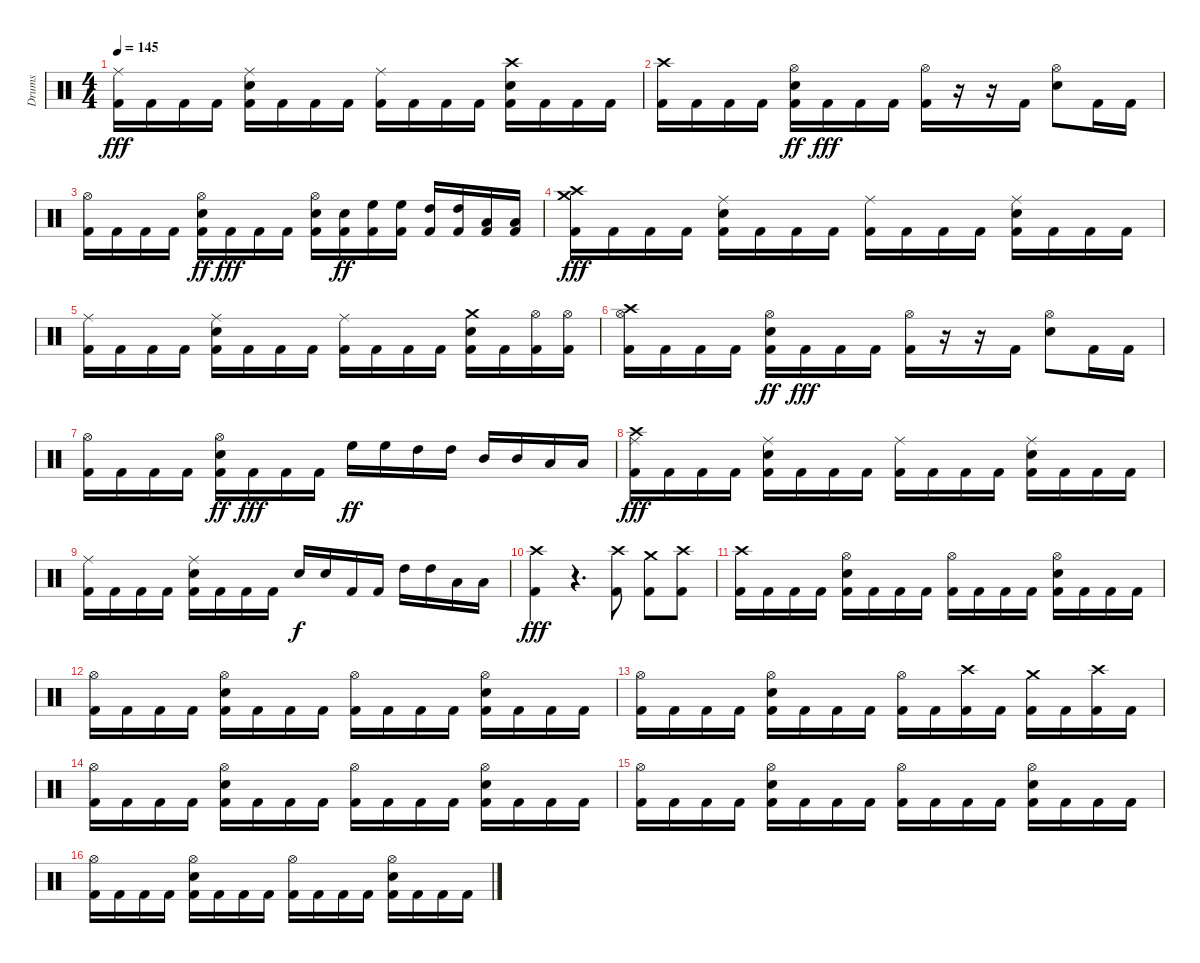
\track ("Drums" "Drums") {instrument percussion}
\staff {score}
\articulation defaults
\ts (4 4)
\tempo 145
\clef neutral
\ks c
("Ride (middle)" "Kick (hit) 2").16{dy fff} "Kick (hit) 2".16 "Kick (hit) 2".16 "Kick (hit) 2".16 ("Ride (middle)" "Snare (hit) 2" "Kick (hit) 2").16 "Kick (hit) 2".16 "Kick (hit) 2".16 "Kick (hit) 2".16 ("Ride (middle)" "Kick (hit) 2").16 "Kick (hit) 2".16 "Kick (hit) 2".16 "Kick (hit) 2".16 ("Crash high (hit)" "Snare (hit) 2" "Kick (hit) 2").16 "Kick (hit) 2".16 "Kick (hit) 2".16 "Kick (hit) 2".16 |
("Crash high (hit)" "Kick (hit) 2").16 "Kick (hit) 2".16 "Kick (hit) 2".16 "Kick (hit) 2".16 ("Hi-Hat (open)" "Snare (hit) 2" "Kick (hit) 2").16{dy ff} "Kick (hit) 2".16{dy fff} "Kick (hit) 2".16 "Kick (hit) 2".16 ("Hi-Hat (open)" "Kick (hit) 2").16 r.16 r.16 "Kick (hit) 2".16 ("Hi-Hat (open)" "Snare (hit) 2").8 "Kick (hit) 2".16 "Kick (hit) 2".16 |
("Hi-Hat (open)" "Kick (hit) 2").16 "Kick (hit) 2".16 "Kick (hit) 2".16 "Kick (hit) 2".16 ("Hi-Hat (open)" "Snare (hit) 2" "Kick (hit) 2").16{dy ff} "Kick (hit) 2".16{dy fff} "Kick (hit) 2".16 "Kick (hit) 2".16 ("Hi-Hat (open)" "Snare (hit) 2" "Kick (hit) 2").16 ("Snare (hit) 2" "Kick (hit) 2").16{dy ff} ("High Floor Tom (hit)" "Kick (hit) 2").16 ("High Floor Tom (hit)" "Kick (hit) 2").16 ("High Tom (hit)" "Kick (hit) 2").16 ("High Tom (hit)" "Kick (hit) 2").16 ("Low Tom (hit)" "Kick (hit) 2").16 ("Low Tom (hit)" "Kick (hit) 2").16 |
("Crash high (hit)" "Crash medium (hit)" "Kick (hit) 2").16{dy fff} "Kick (hit) 2".16 "Kick (hit) 2".16 "Kick (hit) 2".16 ("Ride (middle)" "Snare (hit) 2" "Kick (hit) 2").16 "Kick (hit) 2".16 "Kick (hit) 2".16 "Kick (hit) 2".16 ("Ride (middle)" "Kick (hit) 2").16 "Kick (hit) 2".16 "Kick (hit) 2".16 "Kick (hit) 2".16 ("Ride (middle)" "Snare (hit) 2" "Kick (hit) 2").16 "Kick (hit) 2".16 "Kick (hit) 2".16 "Kick (hit) 2".16 |
("Ride (middle)" "Kick (hit) 2").16 "Kick (hit) 2".16 "Kick (hit) 2".16 "Kick (hit) 2".16 ("Ride (middle)" "Snare (hit) 2" "Kick (hit) 2").16 "Kick (hit) 2".16 "Kick (hit) 2".16 "Kick (hit) 2".16 ("Ride (middle)" "Kick (hit) 2").16 "Kick (hit) 2".16 "Kick (hit) 2".16 "Kick (hit) 2".16 ("Crash medium (hit)" "Snare (hit) 2" "Kick (hit) 2").16 "Kick (hit) 2".16 ("Hi-Hat (open)" "Kick (hit) 2").16 ("Hi-Hat (open)" "Kick (hit) 2").16 |
("Crash high (hit)" "Hi-Hat (open)" "Kick (hit) 2").16 "Kick (hit) 2".16 "Kick (hit) 2".16 "Kick (hit) 2".16 ("Hi-Hat (open)" "Snare (hit) 2" "Kick (hit) 2").16{dy ff} "Kick (hit) 2".16{dy fff} "Kick (hit) 2".16 "Kick (hit) 2".16 ("Hi-Hat (open)" "Kick (hit) 2").16 r.16 r.16 "Kick (hit) 2".16 ("Hi-Hat (open)" "Snare (hit) 2").8 "Kick (hit) 2".16 "Kick (hit) 2".16 |
("Hi-Hat (open)" "Kick (hit) 2").16 "Kick (hit) 2".16 "Kick (hit) 2".16 "Kick (hit) 2".16 ("Hi-Hat (open)" "Snare (hit) 2" "Kick (hit) 2").16{dy ff} "Kick (hit) 2".16{dy fff} "Kick (hit) 2".16 "Kick (hit) 2".16 "High Floor Tom (hit)".16{dy ff} "High Floor Tom (hit)".16 "High Tom (hit)".16 "High Tom (hit)".16 "Mid Tom (hit)".16 "Mid Tom (hit)".16 "Low Tom (hit)".16 "Low Tom (hit)".16 |
("Crash high (hit)" "Ride (middle)" "Kick (hit) 2").16{dy fff} "Kick (hit) 2".16 "Kick (hit) 2".16 "Kick (hit) 2".16 ("Ride (middle)" "Snare (hit) 2" "Kick (hit) 2").16 "Kick (hit) 2".16 "Kick (hit) 2".16 "Kick (hit) 2".16 ("Ride (middle)" "Kick (hit) 2").16 "Kick (hit) 2".16 "Kick (hit) 2".16 "Kick (hit) 2".16 ("Ride (middle)" "Snare (hit) 2" "Kick (hit) 2").16 "Kick (hit) 2".16 "Kick (hit) 2".16 "Kick (hit) 2".16 |
("Ride (middle)" "Kick (hit) 2").16 "Kick (hit) 2".16 "Kick (hit) 2".16 "Kick (hit) 2".16 ("Ride (middle)" "Snare (hit) 2" "Kick (hit) 2").16 "Kick (hit) 2".16 "Kick (hit) 2".16 "Kick (hit) 2".16 "Snare (hit) 2".16{dy f} "Snare (hit) 2".16 "Kick (hit) 2".16 "Kick (hit) 2".16 "High Tom (hit)".16 "High Tom (hit)".16 "Low Tom (hit)".16 "Low Tom (hit)".16 |
("Crash high (hit)" "Kick (hit) 2").4{dy fff} r.4{d volume 0} ("Crash high (hit)" "Kick (hit) 2").8{volume 16} ("Crash medium (hit)" "Kick (hit) 2").8 ("Crash high (hit)" "Kick (hit) 2").8 |
("Crash high (hit)" "Kick (hit) 2").16 "Kick (hit) 2".16 "Kick (hit) 2".16 "Kick (hit) 2".16 ("Hi-Hat (open)" "Snare (hit) 2" "Kick (hit) 2").16 "Kick (hit) 2".16 "Kick (hit) 2".16 "Kick (hit) 2".16 ("Hi-Hat (open)" "Kick (hit) 2").16 "Kick (hit) 2".16 "Kick (hit) 2".16 "Kick (hit) 2".16 ("Hi-Hat (open)" "Snare (hit) 2" "Kick (hit) 2").16 "Kick (hit) 2".16 "Kick (hit) 2".16 "Kick (hit) 2".16 |
("Hi-Hat (open)" "Kick (hit) 2").16 "Kick (hit) 2".16 "Kick (hit) 2".16 "Kick (hit) 2".16 ("Hi-Hat (open)" "Snare (hit) 2" "Kick (hit) 2").16 "Kick (hit) 2".16 "Kick (hit) 2".16 "Kick (hit) 2".16 ("Hi-Hat (open)" "Kick (hit) 2").16 "Kick (hit) 2".16 "Kick (hit) 2".16 "Kick (hit) 2".16 ("Hi-Hat (open)" "Snare (hit) 2" "Kick (hit) 2").16 "Kick (hit) 2".16 "Kick (hit) 2".16 "Kick (hit) 2".16 |
("Hi-Hat (open)" "Kick (hit) 2").16 "Kick (hit) 2".16 "Kick (hit) 2".16 "Kick (hit) 2".16 ("Hi-Hat (open)" "Snare (hit) 2" "Kick (hit) 2").16 "Kick (hit) 2".16 "Kick (hit) 2".16 "Kick (hit) 2".16 ("Hi-Hat (open)" "Kick (hit) 2").16 "Kick (hit) 2".16 ("Crash high (hit)" "Kick (hit) 2").16 "Kick (hit) 2".16 ("Crash medium (hit)" "Kick (hit) 2").16 "Kick (hit) 2".16 ("Crash high (hit)" "Kick (hit) 2").16 "Kick (hit) 2".16 |
("Hi-Hat (open)" "Kick (hit) 2").16 "Kick (hit) 2".16 "Kick (hit) 2".16 "Kick (hit) 2".16 ("Hi-Hat (open)" "Snare (hit) 2" "Kick (hit) 2").16 "Kick (hit) 2".16 "Kick (hit) 2".16 "Kick (hit) 2".16 ("Hi-Hat (open)" "Kick (hit) 2").16 "Kick (hit) 2".16 "Kick (hit) 2".16 "Kick (hit) 2".16 ("Hi-Hat (open)" "Snare (hit) 2" "Kick (hit) 2").16 "Kick (hit) 2".16 "Kick (hit) 2".16 "Kick (hit) 2".16 |
("Hi-Hat (open)" "Kick (hit) 2").16 "Kick (hit) 2".16 "Kick (hit) 2".16 "Kick (hit) 2".16 ("Hi-Hat (open)" "Snare (hit) 2" "Kick (hit) 2").16 "Kick (hit) 2".16 "Kick (hit) 2".16 "Kick (hit) 2".16 ("Hi-Hat (open)" "Kick (hit) 2").16 "Kick (hit) 2".16 "Kick (hit) 2".16 "Kick (hit) 2".16 ("Hi-Hat (open)" "Snare (hit) 2" "Kick (hit) 2").16 "Kick (hit) 2".16 "Kick (hit) 2".16 "Kick (hit) 2".16 |
("Hi-Hat (open)" "Kick (hit) 2").16 "Kick (hit) 2".16 "Kick (hit) 2".16 "Kick (hit) 2".16 ("Hi-Hat (open)" "Snare (hit) 2" "Kick (hit) 2").16 "Kick (hit) 2".16 "Kick (hit) 2".16 "Kick (hit) 2".16 ("Hi-Hat (open)" "Kick (hit) 2").16 "Kick (hit) 2".16 "Kick (hit) 2".16 "Kick (hit) 2".16 ("Hi-Hat (open)" "Snare (hit) 2" "Kick (hit) 2").16 "Kick (hit) 2".16 "Kick (hit) 2".16 "Kick (hit) 2".16
